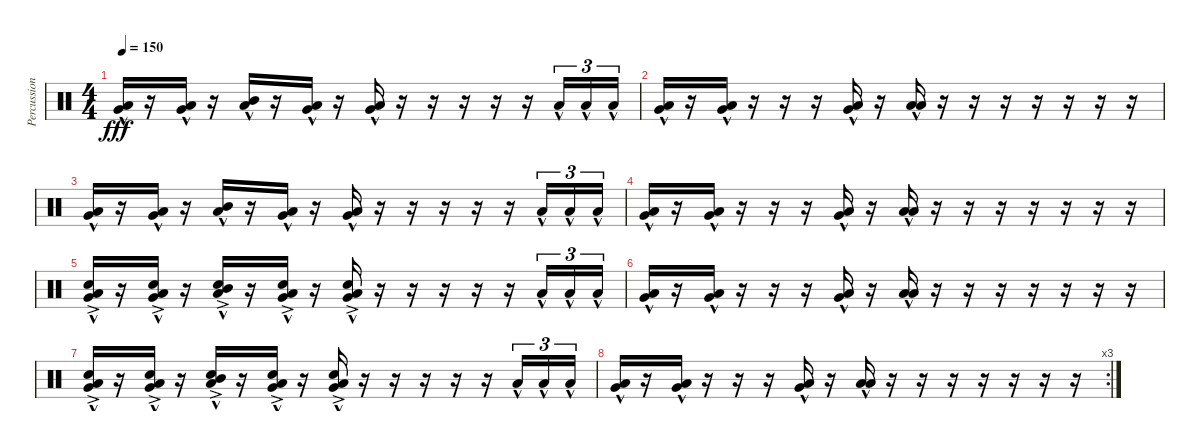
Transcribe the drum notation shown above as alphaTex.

\track ("Percussion" "Percussion") {instrument percussion}
\staff {score}
\articulation defaults
\ts (4 4)
\tempo 150
\clef neutral
\ks c
("Very Low Tom (hit)"{hac} "Low Floor Tom (hit)"{hac}).16{dy fff} r.16 ("Very Low Tom (hit)"{hac} "Low Floor Tom (hit)"{hac}).16 r.16 ("Mid Tom (hit)"{hac} "Low Floor Tom (hit)"{hac}).16 r.16 ("Very Low Tom (hit)"{hac} "Low Floor Tom (hit)"{hac}).16 r.16 ("Very Low Tom (hit)"{hac} "Low Floor Tom (hit)"{hac}).16 r.16 r.16 r.16 r.16 r.16 "Low Floor Tom (hit)"{hac}.16{tu (3 2)} "Low Floor Tom (hit)"{hac}.16{tu (3 2)} "Low Floor Tom (hit)"{hac}.16{tu (3 2)} |
("Very Low Tom (hit)"{hac} "Low Floor Tom (hit)"{hac}).16 r.16 ("Very Low Tom (hit)"{hac} "Low Floor Tom (hit)"{hac}).16 r.16 r.16 r.16 ("Very Low Tom (hit)"{hac} "Low Floor Tom (hit)"{hac}).16 r.16 ("Low Floor Tom (hit)"{hac} "Low Floor Tom (hit)"{hac}).16 r.16 r.16 r.16 r.16 r.16 r.16 r.16 |
("Very Low Tom (hit)"{hac} "Low Floor Tom (hit)"{hac}).16 r.16 ("Very Low Tom (hit)"{hac} "Low Floor Tom (hit)"{hac}).16 r.16 ("Mid Tom (hit)"{hac} "Low Floor Tom (hit)"{hac}).16 r.16 ("Very Low Tom (hit)"{hac} "Low Floor Tom (hit)"{hac}).16 r.16 ("Very Low Tom (hit)"{hac} "Low Floor Tom (hit)"{hac}).16 r.16 r.16 r.16 r.16 r.16 "Low Floor Tom (hit)"{hac}.16{tu (3 2)} "Low Floor Tom (hit)"{hac}.16{tu (3 2)} "Low Floor Tom (hit)"{hac}.16{tu (3 2)} |
("Very Low Tom (hit)"{hac} "Low Floor Tom (hit)"{hac}).16 r.16 ("Very Low Tom (hit)"{hac} "Low Floor Tom (hit)"{hac}).16 r.16 r.16 r.16 ("Very Low Tom (hit)"{hac} "Low Floor Tom (hit)"{hac}).16 r.16 ("Low Floor Tom (hit)"{hac} "Low Floor Tom (hit)"{hac}).16 r.16 r.16 r.16 r.16 r.16 r.16 r.16 |
("Snare (hit) 2"{ac} "Very Low Tom (hit)"{hac} "Low Floor Tom (hit)"{hac}).16 r.16 ("Snare (hit) 2"{ac} "Very Low Tom (hit)"{hac} "Low Floor Tom (hit)"{hac}).16 r.16 ("Snare (hit) 2"{ac} "Mid Tom (hit)"{hac} "Low Floor Tom (hit)"{hac}).16 r.16 ("Snare (hit) 2"{ac} "Very Low Tom (hit)"{hac} "Low Floor Tom (hit)"{hac}).16 r.16 ("Snare (hit) 2"{ac} "Very Low Tom (hit)"{hac} "Low Floor Tom (hit)"{hac}).16 r.16 r.16 r.16 r.16 r.16 "Low Floor Tom (hit)"{hac}.16{tu (3 2)} "Low Floor Tom (hit)"{hac}.16{tu (3 2)} "Low Floor Tom (hit)"{hac}.16{tu (3 2)} |
("Very Low Tom (hit)"{hac} "Low Floor Tom (hit)"{hac}).16 r.16 ("Very Low Tom (hit)"{hac} "Low Floor Tom (hit)"{hac}).16 r.16 r.16 r.16 ("Very Low Tom (hit)"{hac} "Low Floor Tom (hit)"{hac}).16 r.16 ("Low Floor Tom (hit)"{hac} "Low Floor Tom (hit)"{hac}).16 r.16 r.16 r.16 r.16 r.16 r.16 r.16 |
("Snare (hit) 2"{ac} "Very Low Tom (hit)"{hac} "Low Floor Tom (hit)"{hac}).16 r.16 ("Snare (hit) 2"{ac} "Very Low Tom (hit)"{hac} "Low Floor Tom (hit)"{hac}).16 r.16 ("Snare (hit) 2"{ac} "Mid Tom (hit)"{hac} "Low Floor Tom (hit)"{hac}).16 r.16 ("Snare (hit) 2"{ac} "Very Low Tom (hit)"{hac} "Low Floor Tom (hit)"{hac}).16 r.16 ("Snare (hit) 2"{ac} "Very Low Tom (hit)"{hac} "Low Floor Tom (hit)"{hac}).16 r.16 r.16 r.16 r.16 r.16 "Low Floor Tom (hit)"{hac}.16{tu (3 2)} "Low Floor Tom (hit)"{hac}.16{tu (3 2)} "Low Floor Tom (hit)"{hac}.16{tu (3 2)} |
\rc 3
("Very Low Tom (hit)"{hac} "Low Floor Tom (hit)"{hac}).16 r.16 ("Very Low Tom (hit)"{hac} "Low Floor Tom (hit)"{hac}).16 r.16 r.16 r.16 ("Very Low Tom (hit)"{hac} "Low Floor Tom (hit)"{hac}).16 r.16 ("Low Floor Tom (hit)"{hac} "Low Floor Tom (hit)"{hac}).16 r.16 r.16 r.16 r.16 r.16 r.16 r.16
